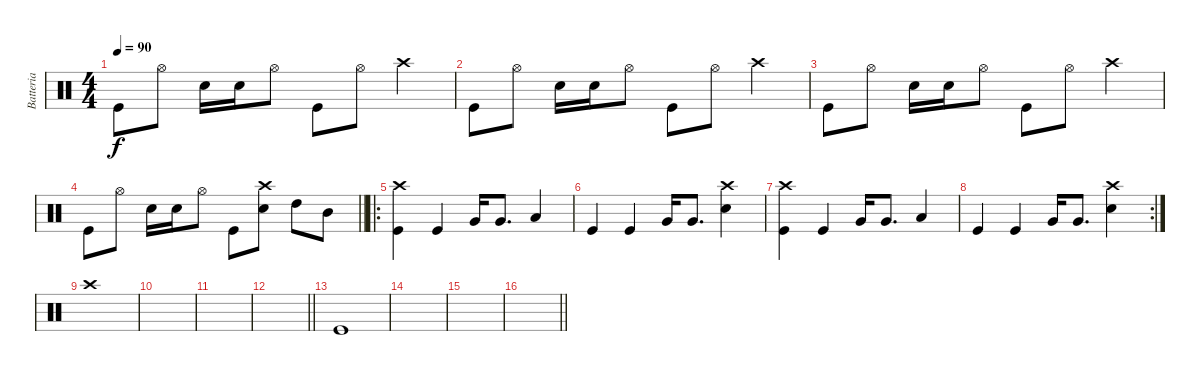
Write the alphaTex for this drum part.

\track ("Batteria" "Batteria") {instrument percussion}
\staff {score}
\articulation defaults
\ts (4 4)
\tempo 90
\clef neutral
\ks c "Kick (hit)".8{dy f} "Hi-Hat (open)".8 "Snare (hit) 2".16 "Snare (hit) 2".16 "Hi-Hat (open)".8 "Kick (hit)".8 "Hi-Hat (open)".8 "Crash high (hit)".4
|
"Kick (hit)".8 "Hi-Hat (open)".8 "Snare (hit) 2".16 "Snare (hit) 2".16 "Hi-Hat (open)".8 "Kick (hit)".8 "Hi-Hat (open)".8 "Crash high (hit)".4 |
"Kick (hit)".8 "Hi-Hat (open)".8 "Snare (hit) 2".16 "Snare (hit) 2".16 "Hi-Hat (open)".8 "Kick (hit)".8 "Hi-Hat (open)".8 "Crash high (hit)".4 |
\barLineRight lightlight "Kick (hit)".8 "Hi-Hat (open)".8 "Snare (hit) 2".16 "Snare (hit) 2".16 "Hi-Hat (open)".8 "Kick (hit)".8
("Crash high (hit)" "Snare (hit) 2").8 "High Tom (hit)".8 "Mid Tom (hit)".8 |
\ro
("Kick (hit)" "Crash high (hit)").4 "Kick (hit)".4 "Very Low Tom (hit)".16 "Very Low Tom (hit)".8{d} "Low Tom (hit)".4 |
"Kick (hit)".4 "Kick (hit)".4 "Very Low Tom (hit)".16 "Very Low Tom (hit)".8{d} ("Snare (hit) 2" "Crash high (hit)").4 |
("Kick (hit)" "Crash high (hit)").4 "Kick (hit)".4 "Very Low Tom (hit)".16 "Very Low Tom (hit)".8{d} "Low Tom (hit)".4 |
\rc 2 "Kick (hit)".4 "Kick (hit)".4 "Very Low Tom (hit)".16 "Very Low Tom (hit)".8{d}
("Snare (hit) 2" "Crash high (hit)").4 |
"Crash high (hit)".1 |
|
|
\barLineRight lightlight
|
"Kick (hit)".1 |
|
|
\barLineRight lightlight
